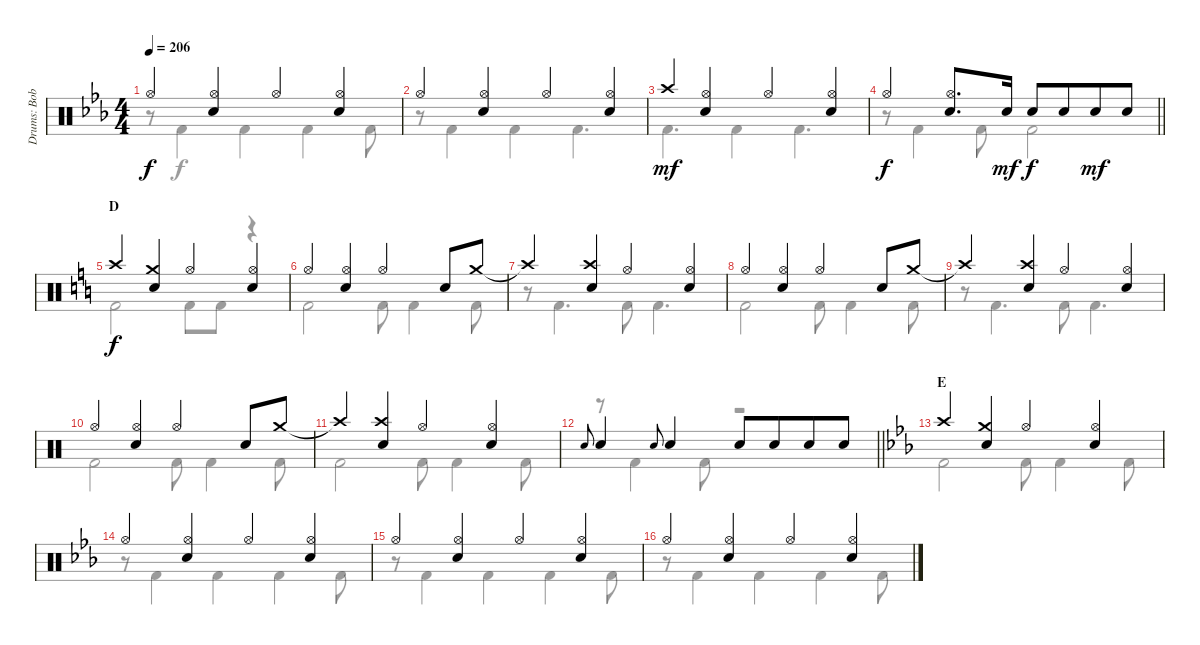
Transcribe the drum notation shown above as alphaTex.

\track ("Drums: Bobby" "Drums: Bob") {instrument percussion}
\staff {score}
\articulation defaults
\voice
\ts (4 4)
\tempo 206
\clef neutral
\ks eb "Hi-Hat (open)".4{dy f}
("Hi-Hat (open)" "Snare (hit) 2").4 "Hi-Hat (open)".4 ("Hi-Hat (open)" "Snare (hit) 2").4 |
"Hi-Hat (open)".4 ("Hi-Hat (open)" "Snare (hit) 2").4 "Hi-Hat (open)".4 ("Hi-Hat (open)" "Snare (hit) 2").4 |
"Crash high (hit)".4{dy mf} ("Hi-Hat (open)" "Snare (hit) 2").4 "Hi-Hat (open)".4 ("Hi-Hat (open)" "Snare (hit) 2").4 |
\barLineRight lightlight "Hi-Hat (open)".4{dy f}
("Hi-Hat (open)" "Snare (hit) 2").8{d} "Snare (hit) 2".16{dy mf} "Snare (hit) 2".8{dy f} "Snare (hit) 2".8{beam merge} "Snare (hit) 2".8{dy mf} "Snare (hit) 2".8 |
\section ("" "D")
\ks c "Crash high (hit)".4{dy f}
("Crash medium (hit)" "Snare (hit) 2").4 "Hi-Hat (open)".4 ("Hi-Hat (open)" "Snare (hit) 2").4 |
"Hi-Hat (open)".4 ("Hi-Hat (open)" "Snare (hit) 2").4 "Hi-Hat (open)".4 "Snare (hit) 2".8 "Crash medium (hit)".8 |
"Crash high (hit)"{t}.4 ("Crash high (hit)" "Snare (hit) 2").4 "Hi-Hat (open)".4 ("Hi-Hat (open)" "Snare (hit) 2").4 |
"Hi-Hat (open)".4 ("Hi-Hat (open)" "Snare (hit) 2").4 "Hi-Hat (open)".4 "Snare (hit) 2".8 "Crash medium (hit)".8 |
"Crash high (hit)"{t}.4 ("Crash high (hit)" "Snare (hit) 2").4 "Hi-Hat (open)".4 ("Hi-Hat (open)" "Snare (hit) 2").4 |
"Hi-Hat (open)".4 ("Hi-Hat (open)" "Snare (hit) 2").4 "Hi-Hat (open)".4 "Snare (hit) 2".8 "Crash medium (hit)".8 |
"Crash high (hit)"{t}.4 ("Crash high (hit)" "Snare (hit) 2").4 "Hi-Hat (open)".4 ("Hi-Hat (open)" "Snare (hit) 2").4 |
\barLineRight lightlight "Electric Snare (hit)".8{gr onbeat} "Snare (hit) 2".4 "Electric Snare (hit)".8{gr onbeat} "Snare (hit) 2".4 "Snare (hit) 2".8 "Snare (hit) 2".8{beam merge} "Snare (hit) 2".8 "Snare (hit) 2".8
|
\section ("" "E")
\ks eb "Crash high (hit)".4
("Crash medium (hit)" "Snare (hit) 2").4 "Hi-Hat (open)".4 ("Hi-Hat (open)" "Snare (hit) 2").4 |
"Hi-Hat (open)".4 ("Hi-Hat (open)" "Snare (hit) 2").4 "Hi-Hat (open)".4 ("Hi-Hat (open)" "Snare (hit) 2").4 |
"Hi-Hat (open)".4 ("Hi-Hat (open)" "Snare (hit) 2").4 "Hi-Hat (open)".4 ("Hi-Hat (open)" "Snare (hit) 2").4 |
"Hi-Hat (open)".4 ("Hi-Hat (open)" "Snare (hit) 2").4 "Hi-Hat (open)".4 ("Hi-Hat (open)" "Snare (hit) 2").4
\voice
\clef neutral
\ottava regular
\simile none
\ks eb
r.8{dy f} "Kick (hit) 2".4 "Kick (hit) 2".4 "Kick (hit) 2".4 "Kick (hit) 2".8 |
r.8 "Kick (hit) 2".4 "Kick (hit) 2".4 "Kick (hit) 2".4{d} |
"Kick (hit) 2".4{d} "Kick (hit) 2".4 "Kick (hit) 2".4{d} |
\barLineRight lightlight
r.8 "Kick (hit) 2".4 "Kick (hit) 2".8 "Kick (hit) 2".2 |
\ks c "Kick (hit) 2".2 "Kick (hit) 2".8 "Kick (hit) 2".8
r.4 |
"Kick (hit) 2".2 "Kick (hit) 2".8 "Kick (hit) 2".4 "Kick (hit) 2".8 |
r.8 "Kick (hit) 2".4{d} "Kick (hit) 2".8 "Kick (hit) 2".4{d} |
"Kick (hit) 2".2 "Kick (hit) 2".8 "Kick (hit) 2".4 "Kick (hit) 2".8 |
r.8 "Kick (hit) 2".4{d} "Kick (hit) 2".8 "Kick (hit) 2".4{d} |
"Kick (hit) 2".2 "Kick (hit) 2".8 "Kick (hit) 2".4 "Kick (hit) 2".8 |
"Kick (hit) 2".2 "Kick (hit) 2".8 "Kick (hit) 2".4 "Kick (hit) 2".8 |
\barLineRight lightlight
r.8 "Kick (hit) 2".4 "Kick (hit) 2".8 r.2 |
\ks eb "Kick (hit) 2".2 "Kick (hit) 2".8 "Kick (hit) 2".4 "Kick (hit) 2".8
|
r.8 "Kick (hit) 2".4 "Kick (hit) 2".4 "Kick (hit) 2".4 "Kick (hit) 2".8 |
r.8 "Kick (hit) 2".4 "Kick (hit) 2".4 "Kick (hit) 2".4 "Kick (hit) 2".8 |
r.8 "Kick (hit) 2".4 "Kick (hit) 2".4 "Kick (hit) 2".4 "Kick (hit) 2".8
